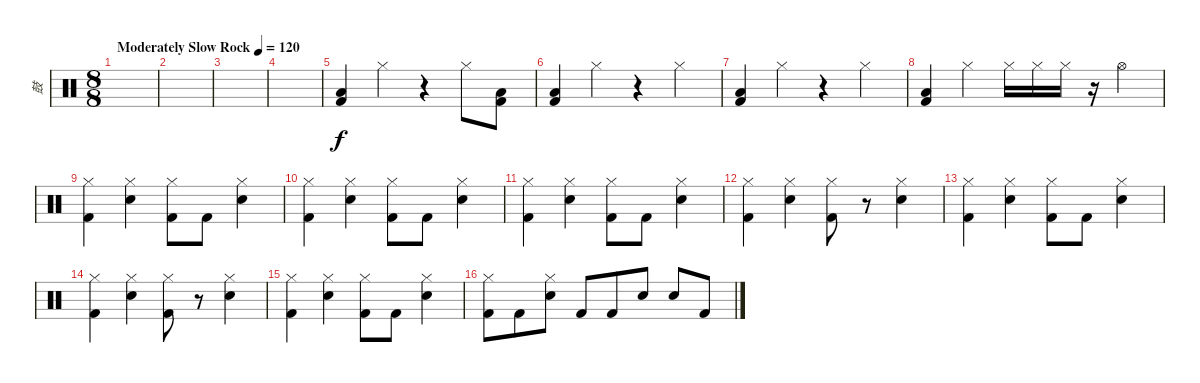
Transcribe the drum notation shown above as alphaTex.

\track ("鼓" "鼓") {instrument percussion}
\staff {score}
\articulation defaults
\ts (8 8)
\tempo (120 "Moderately Slow Rock")
\clef neutral
\ks c
|
|
|
|
("Low Floor Tom (hit)" "Kick (hit) 2").4 "Hi-Hat (closed)".4 r.4 "Hi-Hat (closed)".8 ("Low Floor Tom (hit)" "Kick (hit) 2").8 |
("Low Floor Tom (hit)" "Kick (hit) 2").4 "Hi-Hat (closed)".4 r.4 "Hi-Hat (closed)".4 |
("Low Floor Tom (hit)" "Kick (hit) 2").4 "Hi-Hat (closed)".4 r.4 "Hi-Hat (closed)".4 |
("Low Floor Tom (hit)" "Kick (hit) 2").4 "Hi-Hat (closed)".4 "Hi-Hat (closed)".16 "Hi-Hat (closed)".16 "Hi-Hat (closed)".16 r.16 "Hi-Hat (open)".4 |
("Hi-Hat (closed)" "Kick (hit) 2").4 ("Hi-Hat (closed)" "Electric Snare (hit)").4 ("Hi-Hat (closed)" "Kick (hit) 2").8 "Kick (hit) 2".8 ("Hi-Hat (closed)" "Electric Snare (hit)").4 |
("Hi-Hat (closed)" "Kick (hit) 2").4 ("Hi-Hat (closed)" "Electric Snare (hit)").4 ("Hi-Hat (closed)" "Kick (hit) 2").8 "Kick (hit) 2".8 ("Hi-Hat (closed)" "Electric Snare (hit)").4 |
("Hi-Hat (closed)" "Kick (hit) 2").4 ("Hi-Hat (closed)" "Electric Snare (hit)").4 ("Hi-Hat (closed)" "Kick (hit) 2").8 "Kick (hit) 2".8 ("Hi-Hat (closed)" "Electric Snare (hit)").4 |
("Hi-Hat (closed)" "Kick (hit) 2").4 ("Hi-Hat (closed)" "Electric Snare (hit)").4 ("Hi-Hat (closed)" "Kick (hit) 2").8 r.8 ("Hi-Hat (closed)" "Electric Snare (hit)").4 |
("Hi-Hat (closed)" "Kick (hit) 2").4 ("Hi-Hat (closed)" "Electric Snare (hit)").4 ("Hi-Hat (closed)" "Kick (hit) 2").8 "Kick (hit) 2".8 ("Hi-Hat (closed)" "Electric Snare (hit)").4 |
("Hi-Hat (closed)" "Kick (hit) 2").4 ("Hi-Hat (closed)" "Electric Snare (hit)").4 ("Hi-Hat (closed)" "Kick (hit) 2").8 r.8 ("Hi-Hat (closed)" "Electric Snare (hit)").4 |
("Hi-Hat (closed)" "Kick (hit) 2").4 ("Hi-Hat (closed)" "Electric Snare (hit)").4 ("Hi-Hat (closed)" "Kick (hit) 2").8 "Kick (hit) 2".8 ("Hi-Hat (closed)" "Electric Snare (hit)").4 |
("Hi-Hat (closed)" "Kick (hit) 2").8 "Kick (hit) 2".8 ("Hi-Hat (closed)" "Electric Snare (hit)").8 "Kick (hit) 2".8 "Kick (hit) 2".8 "Electric Snare (hit)".8 "Electric Snare (hit)".8 "Kick (hit) 2".8
